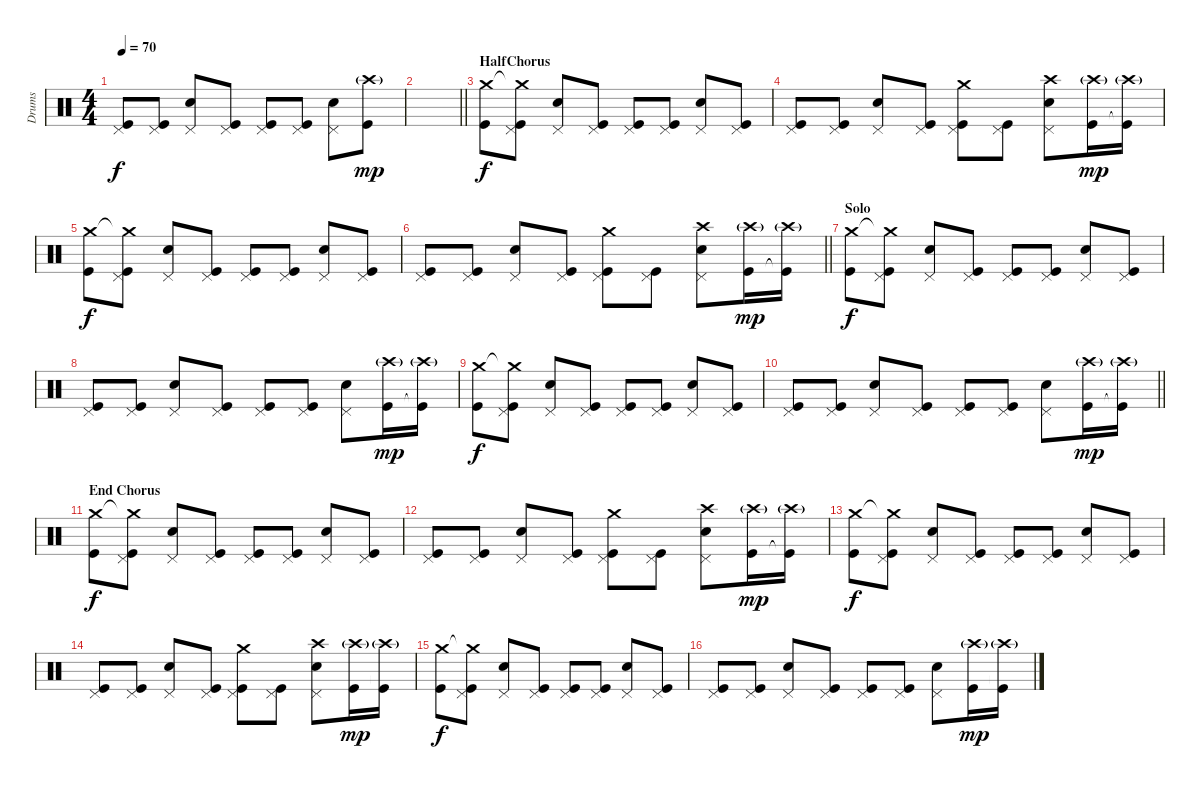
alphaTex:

\track ("Drums" "Drums") {instrument percussion}
\staff {score}
\articulation defaults
\ts (4 4)
\tempo 70
\clef neutral
\ks c
("Pedal Hi-Hat (hit)" "Kick (hit)").8{dy f} ("Pedal Hi-Hat (hit)" "Kick (hit)").8 ("Pedal Hi-Hat (hit)" "Snare (hit) 2").8 ("Pedal Hi-Hat (hit)" "Kick (hit)").8 ("Pedal Hi-Hat (hit)" "Kick (hit)").8 ("Pedal Hi-Hat (hit)" "Kick (hit)").8 ("Pedal Hi-Hat (hit)" "Snare (hit) 2").8 ("Crash high (hit)"{g} "Kick (hit)").8{dy mp} |
\barLineRight lightlight
|
\section ("" "HalfChorus")
("Crash medium (hit)" "Kick (hit)").8{dy f} ("Crash medium (hit)"{t} "Pedal Hi-Hat (hit)" "Kick (hit)").8 ("Pedal Hi-Hat (hit)" "Snare (hit) 2").8 ("Pedal Hi-Hat (hit)" "Kick (hit)").8 ("Pedal Hi-Hat (hit)" "Kick (hit)").8 ("Pedal Hi-Hat (hit)" "Kick (hit)").8 ("Pedal Hi-Hat (hit)" "Snare (hit) 2").8 ("Pedal Hi-Hat (hit)" "Kick (hit)").8 |
("Pedal Hi-Hat (hit)" "Kick (hit)").8 ("Pedal Hi-Hat (hit)" "Kick (hit)").8 ("Pedal Hi-Hat (hit)" "Snare (hit) 2").8 ("Pedal Hi-Hat (hit)" "Kick (hit)").8 ("Crash medium (hit)" "Pedal Hi-Hat (hit)" "Kick (hit)").8 ("Pedal Hi-Hat (hit)" "Kick (hit)").8 ("Crash high (hit)" "Pedal Hi-Hat (hit)" "Snare (hit) 2").8 ("Crash high (hit)"{g} "Kick (hit)").16{dy mp} ("Crash high (hit)"{g} "Kick (hit)"{t}).16 |
("Crash medium (hit)" "Kick (hit)").8{dy f} ("Crash medium (hit)"{t} "Pedal Hi-Hat (hit)" "Kick (hit)").8 ("Pedal Hi-Hat (hit)" "Snare (hit) 2").8 ("Pedal Hi-Hat (hit)" "Kick (hit)").8 ("Pedal Hi-Hat (hit)" "Kick (hit)").8 ("Pedal Hi-Hat (hit)" "Kick (hit)").8 ("Pedal Hi-Hat (hit)" "Snare (hit) 2").8 ("Pedal Hi-Hat (hit)" "Kick (hit)").8 |
\barLineRight lightlight
("Pedal Hi-Hat (hit)" "Kick (hit)").8 ("Pedal Hi-Hat (hit)" "Kick (hit)").8 ("Pedal Hi-Hat (hit)" "Snare (hit) 2").8 ("Pedal Hi-Hat (hit)" "Kick (hit)").8 ("Crash medium (hit)" "Pedal Hi-Hat (hit)" "Kick (hit)").8 ("Pedal Hi-Hat (hit)" "Kick (hit)").8 ("Crash high (hit)" "Pedal Hi-Hat (hit)" "Snare (hit) 2").8 ("Crash high (hit)"{g} "Kick (hit)").16{dy mp} ("Crash high (hit)"{g} "Kick (hit)"{t}).16 |
\section ("" "Solo")
("Crash medium (hit)" "Kick (hit)").8{dy f} ("Crash medium (hit)"{t} "Pedal Hi-Hat (hit)" "Kick (hit)").8 ("Pedal Hi-Hat (hit)" "Snare (hit) 2").8 ("Pedal Hi-Hat (hit)" "Kick (hit)").8 ("Pedal Hi-Hat (hit)" "Kick (hit)").8 ("Pedal Hi-Hat (hit)" "Kick (hit)").8 ("Pedal Hi-Hat (hit)" "Snare (hit) 2").8 ("Pedal Hi-Hat (hit)" "Kick (hit)").8 |
("Pedal Hi-Hat (hit)" "Kick (hit)").8 ("Pedal Hi-Hat (hit)" "Kick (hit)").8 ("Pedal Hi-Hat (hit)" "Snare (hit) 2").8 ("Pedal Hi-Hat (hit)" "Kick (hit)").8 ("Pedal Hi-Hat (hit)" "Kick (hit)").8 ("Pedal Hi-Hat (hit)" "Kick (hit)").8 ("Pedal Hi-Hat (hit)" "Snare (hit) 2").8 ("Crash high (hit)"{g} "Kick (hit)").16{dy mp} ("Crash high (hit)"{g} "Kick (hit)"{t}).16 |
("Crash medium (hit)" "Kick (hit)").8{dy f} ("Crash medium (hit)"{t} "Pedal Hi-Hat (hit)" "Kick (hit)").8 ("Pedal Hi-Hat (hit)" "Snare (hit) 2").8 ("Pedal Hi-Hat (hit)" "Kick (hit)").8 ("Pedal Hi-Hat (hit)" "Kick (hit)").8 ("Pedal Hi-Hat (hit)" "Kick (hit)").8 ("Pedal Hi-Hat (hit)" "Snare (hit) 2").8 ("Pedal Hi-Hat (hit)" "Kick (hit)").8 |
\barLineRight lightlight
("Pedal Hi-Hat (hit)" "Kick (hit)").8 ("Pedal Hi-Hat (hit)" "Kick (hit)").8 ("Pedal Hi-Hat (hit)" "Snare (hit) 2").8 ("Pedal Hi-Hat (hit)" "Kick (hit)").8 ("Pedal Hi-Hat (hit)" "Kick (hit)").8 ("Pedal Hi-Hat (hit)" "Kick (hit)").8 ("Pedal Hi-Hat (hit)" "Snare (hit) 2").8 ("Crash high (hit)"{g} "Kick (hit)").16{dy mp} ("Crash high (hit)"{g} "Kick (hit)"{t}).16 |
\section ("" "End Chorus")
("Crash medium (hit)" "Kick (hit)").8{dy f} ("Crash medium (hit)"{t} "Pedal Hi-Hat (hit)" "Kick (hit)").8 ("Pedal Hi-Hat (hit)" "Snare (hit) 2").8 ("Pedal Hi-Hat (hit)" "Kick (hit)").8 ("Pedal Hi-Hat (hit)" "Kick (hit)").8 ("Pedal Hi-Hat (hit)" "Kick (hit)").8 ("Pedal Hi-Hat (hit)" "Snare (hit) 2").8 ("Pedal Hi-Hat (hit)" "Kick (hit)").8 |
("Pedal Hi-Hat (hit)" "Kick (hit)").8 ("Pedal Hi-Hat (hit)" "Kick (hit)").8 ("Pedal Hi-Hat (hit)" "Snare (hit) 2").8 ("Pedal Hi-Hat (hit)" "Kick (hit)").8 ("Crash medium (hit)" "Pedal Hi-Hat (hit)" "Kick (hit)").8 ("Pedal Hi-Hat (hit)" "Kick (hit)").8 ("Crash high (hit)" "Pedal Hi-Hat (hit)" "Snare (hit) 2").8 ("Crash high (hit)"{g} "Kick (hit)").16{dy mp} ("Crash high (hit)"{g} "Kick (hit)"{t}).16 |
("Crash medium (hit)" "Kick (hit)").8{dy f} ("Crash medium (hit)"{t} "Pedal Hi-Hat (hit)" "Kick (hit)").8 ("Pedal Hi-Hat (hit)" "Snare (hit) 2").8 ("Pedal Hi-Hat (hit)" "Kick (hit)").8 ("Pedal Hi-Hat (hit)" "Kick (hit)").8 ("Pedal Hi-Hat (hit)" "Kick (hit)").8 ("Pedal Hi-Hat (hit)" "Snare (hit) 2").8 ("Pedal Hi-Hat (hit)" "Kick (hit)").8 |
("Pedal Hi-Hat (hit)" "Kick (hit)").8 ("Pedal Hi-Hat (hit)" "Kick (hit)").8 ("Pedal Hi-Hat (hit)" "Snare (hit) 2").8 ("Pedal Hi-Hat (hit)" "Kick (hit)").8 ("Crash medium (hit)" "Pedal Hi-Hat (hit)" "Kick (hit)").8 ("Pedal Hi-Hat (hit)" "Kick (hit)").8 ("Crash high (hit)" "Pedal Hi-Hat (hit)" "Snare (hit) 2").8 ("Crash high (hit)"{g} "Kick (hit)").16{dy mp} ("Crash high (hit)"{g} "Kick (hit)"{t}).16 |
("Crash medium (hit)" "Kick (hit)").8{dy f} ("Crash medium (hit)"{t} "Pedal Hi-Hat (hit)" "Kick (hit)").8 ("Pedal Hi-Hat (hit)" "Snare (hit) 2").8 ("Pedal Hi-Hat (hit)" "Kick (hit)").8 ("Pedal Hi-Hat (hit)" "Kick (hit)").8 ("Pedal Hi-Hat (hit)" "Kick (hit)").8 ("Pedal Hi-Hat (hit)" "Snare (hit) 2").8 ("Pedal Hi-Hat (hit)" "Kick (hit)").8 |
("Pedal Hi-Hat (hit)" "Kick (hit)").8 ("Pedal Hi-Hat (hit)" "Kick (hit)").8 ("Pedal Hi-Hat (hit)" "Snare (hit) 2").8 ("Pedal Hi-Hat (hit)" "Kick (hit)").8 ("Pedal Hi-Hat (hit)" "Kick (hit)").8 ("Pedal Hi-Hat (hit)" "Kick (hit)").8 ("Pedal Hi-Hat (hit)" "Snare (hit) 2").8 ("Crash high (hit)"{g} "Kick (hit)").16{dy mp} ("Crash high (hit)"{g} "Kick (hit)"{t}).16
